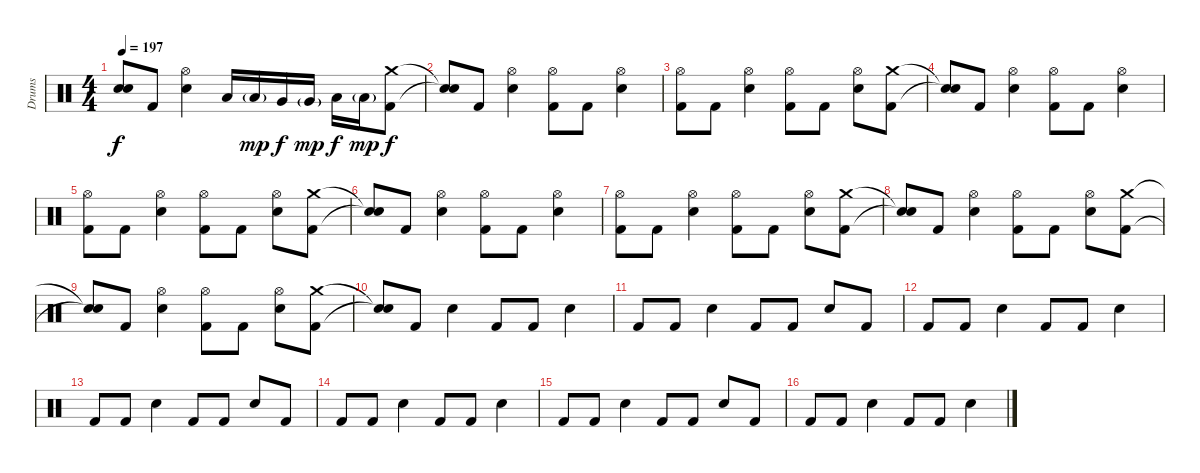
\track ("Drums" "Drums") {instrument percussion}
\staff {score}
\articulation defaults
\ts (4 4)
\section ("" "")
\tempo 197
\clef neutral
\ks c
("Snare (hit)"{t} "Snare (hit)"{t}).8{dy f} "Kick (hit) 2".8 ("Hi-Hat (open)" "Electric Snare (hit)").4 "Low Tom (hit)".16 "Low Tom (hit)"{g}.16{dy mp} "Very Low Tom (hit)".16{dy f} "Very Low Tom (hit)"{g}.16{dy mp} "Low Floor Tom (hit)".16{dy f} "Low Floor Tom (hit)"{g}.16{dy mp} ("Crash medium (hit)" "Kick (hit) 2").8{dy f} |
("Snare (hit)"{t} "Snare (hit)"{t}).8 "Kick (hit) 2".8 ("Hi-Hat (open)" "Electric Snare (hit)").4 ("Hi-Hat (open)" "Kick (hit) 2").8 "Kick (hit) 2".8 ("Hi-Hat (open)" "Electric Snare (hit)").4 |
("Hi-Hat (open)" "Kick (hit) 2").8 "Kick (hit) 2".8 ("Hi-Hat (open)" "Electric Snare (hit)").4 ("Hi-Hat (open)" "Kick (hit) 2").8 "Kick (hit) 2".8 ("Hi-Hat (open)" "Electric Snare (hit)").8 ("Crash medium (hit)" "Kick (hit) 2").8 |
("Snare (hit)"{t} "Snare (hit)"{t}).8 "Kick (hit) 2".8 ("Hi-Hat (open)" "Electric Snare (hit)").4 ("Hi-Hat (open)" "Kick (hit) 2").8 "Kick (hit) 2".8 ("Hi-Hat (open)" "Electric Snare (hit)").4 |
("Hi-Hat (open)" "Kick (hit) 2").8 "Kick (hit) 2".8 ("Hi-Hat (open)" "Electric Snare (hit)").4 ("Hi-Hat (open)" "Kick (hit) 2").8 "Kick (hit) 2".8 ("Hi-Hat (open)" "Electric Snare (hit)").8 ("Crash medium (hit)" "Kick (hit) 2").8 |
("Snare (hit)"{t} "Snare (hit)"{t}).8 "Kick (hit) 2".8 ("Hi-Hat (open)" "Electric Snare (hit)").4 ("Hi-Hat (open)" "Kick (hit) 2").8 "Kick (hit) 2".8 ("Hi-Hat (open)" "Electric Snare (hit)").4 |
("Hi-Hat (open)" "Kick (hit) 2").8 "Kick (hit) 2".8 ("Hi-Hat (open)" "Electric Snare (hit)").4 ("Hi-Hat (open)" "Kick (hit) 2").8 "Kick (hit) 2".8 ("Hi-Hat (open)" "Electric Snare (hit)").8 ("Crash medium (hit)" "Kick (hit) 2").8 |
("Snare (hit)"{t} "Snare (hit)"{t}).8 "Kick (hit) 2".8 ("Hi-Hat (open)" "Electric Snare (hit)").4 ("Hi-Hat (open)" "Kick (hit) 2").8 "Kick (hit) 2".8 ("Hi-Hat (open)" "Electric Snare (hit)").8 ("Crash medium (hit)" "Kick (hit) 2").8 |
("Snare (hit)"{t} "Snare (hit)"{t}).8 "Kick (hit) 2".8 ("Hi-Hat (open)" "Electric Snare (hit)").4 ("Hi-Hat (open)" "Kick (hit) 2").8 "Kick (hit) 2".8 ("Hi-Hat (open)" "Electric Snare (hit)").8 ("Crash medium (hit)" "Kick (hit) 2").8 |
\section ("" "")
("Snare (hit)"{t} "Snare (hit)"{t}).8 "Kick (hit) 2".8 "Electric Snare (hit)".4 "Kick (hit) 2".8 "Kick (hit) 2".8 "Electric Snare (hit)".4 |
"Kick (hit) 2".8 "Kick (hit) 2".8 "Electric Snare (hit)".4 "Kick (hit) 2".8 "Kick (hit) 2".8 "Electric Snare (hit)".8 "Kick (hit) 2".8 |
"Kick (hit) 2".8 "Kick (hit) 2".8 "Electric Snare (hit)".4 "Kick (hit) 2".8 "Kick (hit) 2".8 "Electric Snare (hit)".4 |
"Kick (hit) 2".8 "Kick (hit) 2".8 "Electric Snare (hit)".4 "Kick (hit) 2".8 "Kick (hit) 2".8 "Electric Snare (hit)".8 "Kick (hit) 2".8 |
"Kick (hit) 2".8 "Kick (hit) 2".8 "Electric Snare (hit)".4 "Kick (hit) 2".8 "Kick (hit) 2".8 "Electric Snare (hit)".4 |
"Kick (hit) 2".8 "Kick (hit) 2".8 "Electric Snare (hit)".4 "Kick (hit) 2".8 "Kick (hit) 2".8 "Electric Snare (hit)".8 "Kick (hit) 2".8 |
"Kick (hit) 2".8 "Kick (hit) 2".8 "Electric Snare (hit)".4 "Kick (hit) 2".8 "Kick (hit) 2".8 "Electric Snare (hit)".4
